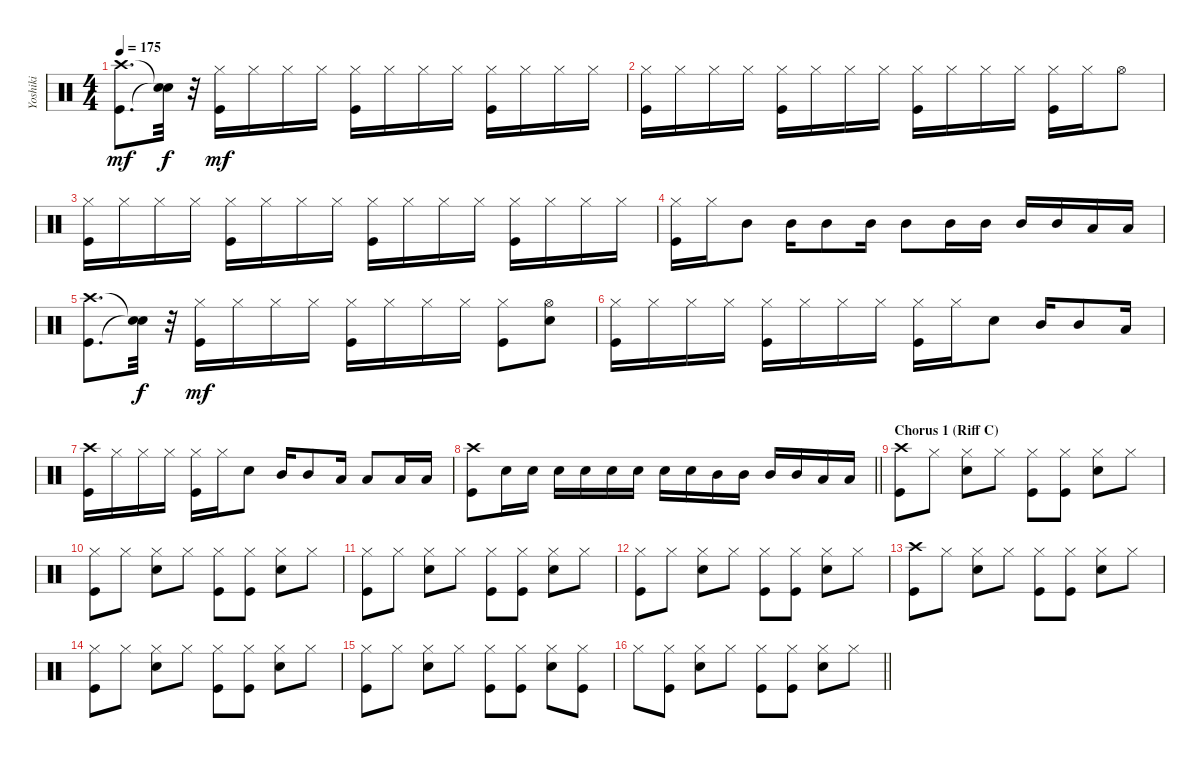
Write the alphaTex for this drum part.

\track ("Yoshiki" "Yoshiki") {instrument percussion}
\staff {score}
\articulation defaults
\ts (4 4)
\tempo 175
\clef neutral
\ks c
("Crash high (hit)" "Kick (hit)").8{d dy mf} ("Snare (hit)"{t} "Snare (hit)"{t}).32{dy f} r.32 ("Hi-Hat (closed)" "Kick (hit)").16{dy mf} "Hi-Hat (closed)".16 "Hi-Hat (closed)".16 "Hi-Hat (closed)".16 ("Hi-Hat (closed)" "Kick (hit)").16 "Hi-Hat (closed)".16 "Hi-Hat (closed)".16 "Hi-Hat (closed)".16 ("Hi-Hat (closed)" "Kick (hit)").16 "Hi-Hat (closed)".16 "Hi-Hat (closed)".16 "Hi-Hat (closed)".16 |
("Hi-Hat (closed)" "Kick (hit)").16 "Hi-Hat (closed)".16 "Hi-Hat (closed)".16 "Hi-Hat (closed)".16 ("Hi-Hat (closed)" "Kick (hit)").16 "Hi-Hat (closed)".16 "Hi-Hat (closed)".16 "Hi-Hat (closed)".16 ("Hi-Hat (closed)" "Kick (hit)").16 "Hi-Hat (closed)".16 "Hi-Hat (closed)".16 "Hi-Hat (closed)".16 ("Kick (hit)" "Hi-Hat (closed)").16 "Hi-Hat (closed)".16 "Hi-Hat (open)".8 |
("Hi-Hat (closed)" "Kick (hit)").16 "Hi-Hat (closed)".16 "Hi-Hat (closed)".16 "Hi-Hat (closed)".16 ("Hi-Hat (closed)" "Kick (hit)").16 "Hi-Hat (closed)".16 "Hi-Hat (closed)".16 "Hi-Hat (closed)".16 ("Hi-Hat (closed)" "Kick (hit)").16 "Hi-Hat (closed)".16 "Hi-Hat (closed)".16 "Hi-Hat (closed)".16 ("Hi-Hat (closed)" "Kick (hit)").16 "Hi-Hat (closed)".16 "Hi-Hat (closed)".16 "Hi-Hat (closed)".16 |
("Hi-Hat (closed)" "Kick (hit)").16 "Hi-Hat (closed)".16 "Mid Tom (hit)".8 "Mid Tom (hit)".16 "Mid Tom (hit)".8 "Mid Tom (hit)".16 "Mid Tom (hit)".8 "Mid Tom (hit)".16 "Mid Tom (hit)".16 "Mid Tom (hit)".16 "Mid Tom (hit)".16 "Low Tom (hit)".16 "Low Tom (hit)".16 |
("Crash high (hit)" "Kick (hit)").8{d} ("Snare (hit)"{t} "Snare (hit)"{t}).32{dy f} r.32 ("Hi-Hat (closed)" "Kick (hit)").16{dy mf} "Hi-Hat (closed)".16 "Hi-Hat (closed)".16 "Hi-Hat (closed)".16 ("Hi-Hat (closed)" "Kick (hit)").16 "Hi-Hat (closed)".16 "Hi-Hat (closed)".16 "Hi-Hat (closed)".16 ("Kick (hit)" "Hi-Hat (closed)").8 ("Snare (hit) 2" "Hi-Hat (open)").8 |
("Hi-Hat (closed)" "Kick (hit)").16 "Hi-Hat (closed)".16 "Hi-Hat (closed)".16 "Hi-Hat (closed)".16 ("Hi-Hat (closed)" "Kick (hit)").16 "Hi-Hat (closed)".16 "Hi-Hat (closed)".16 "Hi-Hat (closed)".16 ("Hi-Hat (closed)" "Kick (hit)").16 "Hi-Hat (closed)".16 "Snare (hit) 2".8 "Mid Tom (hit)".16 "Mid Tom (hit)".8 "Low Tom (hit)".16 |
("Crash high (hit)" "Kick (hit)").16 "Hi-Hat (closed)".16 "Hi-Hat (closed)".16 "Hi-Hat (closed)".16 ("Hi-Hat (closed)" "Kick (hit)").16 "Hi-Hat (closed)".16 "Snare (hit) 2".8 "Mid Tom (hit)".16 "Mid Tom (hit)".8 "Low Tom (hit)".16 "Low Tom (hit)".8 "Low Tom (hit)".16 "Low Tom (hit)".16 |
\barLineRight lightlight
("Crash high (hit)" "Kick (hit)").8 "Snare (hit) 2".16 "Snare (hit) 2".16 "Snare (hit) 2".16 "Snare (hit) 2".16 "Snare (hit) 2".16 "Snare (hit) 2".16 "Snare (hit) 2".16 "Snare (hit) 2".16 "Mid Tom (hit)".16 "Mid Tom (hit)".16 "Mid Tom (hit)".16 "Mid Tom (hit)".16 "Low Tom (hit)".16 "Low Tom (hit)".16 |
\section ("" "Chorus 1 (Riff C)")
("Crash high (hit)" "Kick (hit)").8 "Hi-Hat (closed)".8 ("Snare (hit) 2" "Hi-Hat (closed)").8 "Hi-Hat (closed)".8 ("Hi-Hat (closed)" "Kick (hit)").8 ("Hi-Hat (closed)" "Kick (hit)").8 ("Snare (hit) 2" "Hi-Hat (closed)").8 "Hi-Hat (closed)".8 |
("Hi-Hat (closed)" "Kick (hit)").8 "Hi-Hat (closed)".8 ("Snare (hit) 2" "Hi-Hat (closed)").8 "Hi-Hat (closed)".8 ("Hi-Hat (closed)" "Kick (hit)").8 ("Hi-Hat (closed)" "Kick (hit)").8 ("Snare (hit) 2" "Hi-Hat (closed)").8 "Hi-Hat (closed)".8 |
("Hi-Hat (closed)" "Kick (hit)").8 "Hi-Hat (closed)".8 ("Snare (hit) 2" "Hi-Hat (closed)").8 "Hi-Hat (closed)".8 ("Hi-Hat (closed)" "Kick (hit)").8 ("Hi-Hat (closed)" "Kick (hit)").8 ("Snare (hit) 2" "Hi-Hat (closed)").8 "Hi-Hat (closed)".8 |
("Hi-Hat (closed)" "Kick (hit)").8 "Hi-Hat (closed)".8 ("Snare (hit) 2" "Hi-Hat (closed)").8 "Hi-Hat (closed)".8 ("Hi-Hat (closed)" "Kick (hit)").8 ("Hi-Hat (closed)" "Kick (hit)").8 ("Snare (hit) 2" "Hi-Hat (closed)").8 "Hi-Hat (closed)".8 |
("Crash high (hit)" "Kick (hit)").8 "Hi-Hat (closed)".8 ("Snare (hit) 2" "Hi-Hat (closed)").8 "Hi-Hat (closed)".8 ("Hi-Hat (closed)" "Kick (hit)").8 ("Hi-Hat (closed)" "Kick (hit)").8 ("Snare (hit) 2" "Hi-Hat (closed)").8 "Hi-Hat (closed)".8 |
("Hi-Hat (closed)" "Kick (hit)").8 "Hi-Hat (closed)".8 ("Snare (hit) 2" "Hi-Hat (closed)").8 "Hi-Hat (closed)".8 ("Hi-Hat (closed)" "Kick (hit)").8 ("Hi-Hat (closed)" "Kick (hit)").8 ("Snare (hit) 2" "Hi-Hat (closed)").8 "Hi-Hat (closed)".8 |
("Hi-Hat (closed)" "Kick (hit)").8 "Hi-Hat (closed)".8 ("Snare (hit) 2" "Hi-Hat (closed)").8 "Hi-Hat (closed)".8 ("Hi-Hat (closed)" "Kick (hit)").8 ("Hi-Hat (closed)" "Kick (hit)").8 ("Snare (hit) 2" "Hi-Hat (closed)").8 ("Hi-Hat (closed)" "Kick (hit)").8 |
\barLineRight lightlight "Hi-Hat (closed)".8
("Hi-Hat (closed)" "Kick (hit)").8 ("Snare (hit) 2" "Hi-Hat (closed)").8 "Hi-Hat (closed)".8 ("Kick (hit)" "Hi-Hat (closed)").8 ("Kick (hit)" "Hi-Hat (closed)").8 ("Snare (hit) 2" "Hi-Hat (closed)").8 "Hi-Hat (closed)".8
